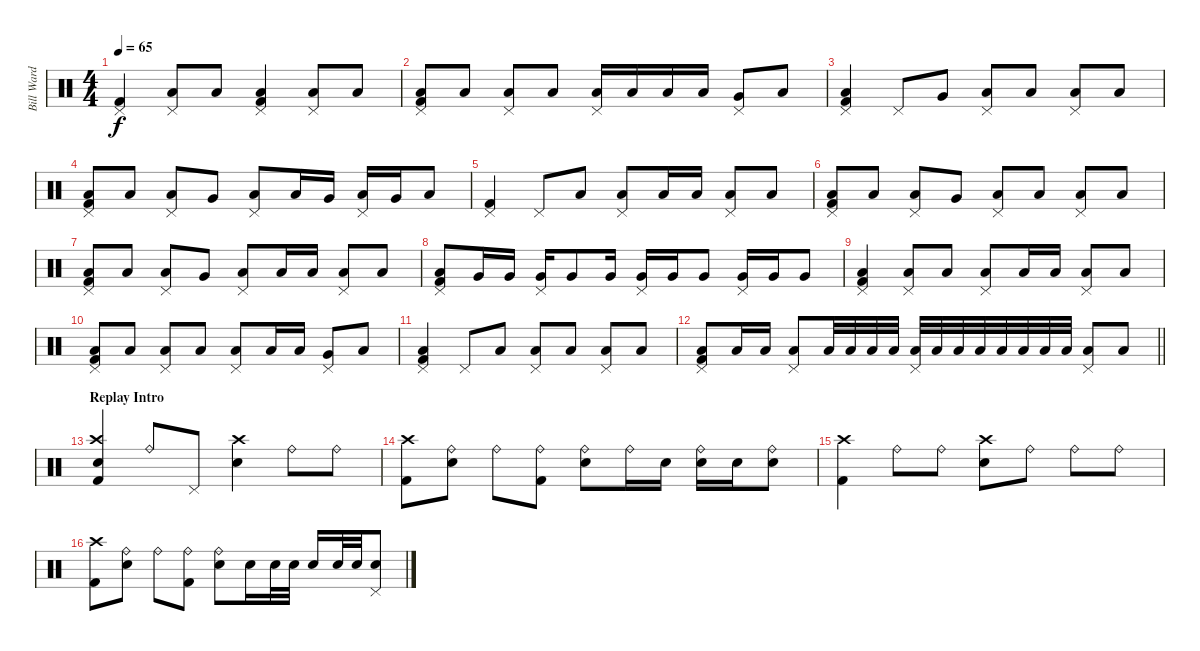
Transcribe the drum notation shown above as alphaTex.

\track ("Bill Ward" "Bill Ward") {instrument percussion}
\staff {score}
\articulation defaults
\ts (4 4)
\tempo 65
\clef neutral
\ks c
("Pedal Hi-Hat (hit)" "Kick (hit) 2").4{dy f} ("Pedal Hi-Hat (hit)" "Low Floor Tom (hit)").8 "Low Floor Tom (hit)".8 ("Pedal Hi-Hat (hit)" "Low Floor Tom (hit)" "Kick (hit) 2").4 ("Pedal Hi-Hat (hit)" "Low Floor Tom (hit)").8 "Low Floor Tom (hit)".8 |
("Pedal Hi-Hat (hit)" "Low Floor Tom (hit)" "Kick (hit) 2").8 "Low Floor Tom (hit)".8 ("Pedal Hi-Hat (hit)" "Low Floor Tom (hit)").8 "Low Floor Tom (hit)".8 ("Pedal Hi-Hat (hit)" "Low Floor Tom (hit)").16 "Low Floor Tom (hit)".16 "Low Floor Tom (hit)".16 "Low Floor Tom (hit)".16 ("Pedal Hi-Hat (hit)" "Very Low Tom (hit)").8 "Low Floor Tom (hit)".8 |
("Pedal Hi-Hat (hit)" "Low Floor Tom (hit)" "Kick (hit) 2").4 "Pedal Hi-Hat (hit)".8 "Very Low Tom (hit)".8 ("Pedal Hi-Hat (hit)" "Low Floor Tom (hit)").8 "Low Floor Tom (hit)".8 ("Pedal Hi-Hat (hit)" "Low Floor Tom (hit)").8 "Low Floor Tom (hit)".8 |
("Pedal Hi-Hat (hit)" "Low Floor Tom (hit)" "Kick (hit) 2").8 "Low Floor Tom (hit)".8 ("Pedal Hi-Hat (hit)" "Low Floor Tom (hit)").8 "Very Low Tom (hit)".8 ("Pedal Hi-Hat (hit)" "Low Floor Tom (hit)").8 "Low Floor Tom (hit)".16 "Very Low Tom (hit)".16 ("Pedal Hi-Hat (hit)" "Low Floor Tom (hit)").16 "Very Low Tom (hit)".16 "Low Floor Tom (hit)".8 |
("Pedal Hi-Hat (hit)" "Kick (hit) 2").4 "Pedal Hi-Hat (hit)".8 "Low Floor Tom (hit)".8 ("Pedal Hi-Hat (hit)" "Low Floor Tom (hit)").8 "Low Floor Tom (hit)".16 "Low Floor Tom (hit)".16 ("Pedal Hi-Hat (hit)" "Low Floor Tom (hit)").8 "Low Floor Tom (hit)".8 |
("Pedal Hi-Hat (hit)" "Low Floor Tom (hit)" "Kick (hit) 2").8 "Low Floor Tom (hit)".8 ("Pedal Hi-Hat (hit)" "Low Floor Tom (hit)").8 "Very Low Tom (hit)".8 ("Pedal Hi-Hat (hit)" "Low Floor Tom (hit)").8 "Low Floor Tom (hit)".8 ("Pedal Hi-Hat (hit)" "Low Floor Tom (hit)").8 "Low Floor Tom (hit)".8 |
("Pedal Hi-Hat (hit)" "Low Floor Tom (hit)" "Kick (hit) 2").8 "Low Floor Tom (hit)".8 ("Pedal Hi-Hat (hit)" "Low Floor Tom (hit)").8 "Very Low Tom (hit)".8 ("Pedal Hi-Hat (hit)" "Low Floor Tom (hit)").8 "Low Floor Tom (hit)".16 "Low Floor Tom (hit)".16 ("Pedal Hi-Hat (hit)" "Low Floor Tom (hit)").8 "Low Floor Tom (hit)".8 |
("Pedal Hi-Hat (hit)" "Low Floor Tom (hit)" "Kick (hit) 2").8 "Very Low Tom (hit)".16 "Very Low Tom (hit)".16 ("Pedal Hi-Hat (hit)" "Very Low Tom (hit)").16 "Very Low Tom (hit)".8 "Very Low Tom (hit)".16 ("Pedal Hi-Hat (hit)" "Very Low Tom (hit)").16 "Very Low Tom (hit)".16 "Very Low Tom (hit)".8 ("Pedal Hi-Hat (hit)" "Very Low Tom (hit)").16 "Very Low Tom (hit)".16 "Very Low Tom (hit)".8 |
("Pedal Hi-Hat (hit)" "Low Floor Tom (hit)" "Kick (hit) 2").4 ("Pedal Hi-Hat (hit)" "Low Floor Tom (hit)").8 "Low Floor Tom (hit)".8 ("Pedal Hi-Hat (hit)" "Low Floor Tom (hit)").8 "Low Floor Tom (hit)".16 "Low Floor Tom (hit)".16 ("Pedal Hi-Hat (hit)" "Low Floor Tom (hit)").8 "Low Floor Tom (hit)".8 |
("Pedal Hi-Hat (hit)" "Low Floor Tom (hit)" "Kick (hit) 2").8 "Low Floor Tom (hit)".8 ("Pedal Hi-Hat (hit)" "Low Floor Tom (hit)").8 "Low Floor Tom (hit)".8 ("Pedal Hi-Hat (hit)" "Low Floor Tom (hit)").8 "Low Floor Tom (hit)".16 "Low Floor Tom (hit)".16 ("Pedal Hi-Hat (hit)" "Very Low Tom (hit)").8 "Low Floor Tom (hit)".8 |
("Pedal Hi-Hat (hit)" "Low Floor Tom (hit)" "Kick (hit) 2").4 "Pedal Hi-Hat (hit)".8 "Low Floor Tom (hit)".8 ("Pedal Hi-Hat (hit)" "Low Floor Tom (hit)").8 "Low Floor Tom (hit)".8 ("Pedal Hi-Hat (hit)" "Low Floor Tom (hit)").8 "Low Floor Tom (hit)".8 |
\barLineRight lightlight
("Pedal Hi-Hat (hit)" "Low Floor Tom (hit)" "Kick (hit) 2").8 "Low Floor Tom (hit)".16 "Low Floor Tom (hit)".16 ("Pedal Hi-Hat (hit)" "Low Floor Tom (hit)").8 "Low Floor Tom (hit)".32 "Low Floor Tom (hit)".32 "Low Floor Tom (hit)".32 "Low Floor Tom (hit)".32 ("Pedal Hi-Hat (hit)" "Low Floor Tom (hit)").32 "Low Floor Tom (hit)".32 "Low Floor Tom (hit)".32 "Low Floor Tom (hit)".32 "Low Floor Tom (hit)".32 "Low Floor Tom (hit)".32 "Low Floor Tom (hit)".32 "Low Floor Tom (hit)".32 ("Pedal Hi-Hat (hit)" "Low Floor Tom (hit)").8 "Low Floor Tom (hit)".8 |
\section ("" "Replay Intro")
("Crash high (hit)" "Snare (hit) 2" "Kick (hit) 2").4{volume 11} "Ride (bell)".8 "Pedal Hi-Hat (hit)".8 ("Crash high (hit)" "Snare (hit) 2").4 "Ride (bell)".8 "Ride (bell)".8 |
("Crash high (hit)" "Kick (hit) 2").8 ("Ride (bell)" "Snare (hit) 2").8 "Ride (bell)".8 ("Ride (bell)" "Kick (hit) 2").8 ("Ride (bell)" "Snare (hit) 2").8 "Ride (bell)".16 "Snare (hit) 2".16 ("Ride (bell)" "Snare (hit) 2").16 "Snare (hit) 2".16 ("Ride (bell)" "Snare (hit) 2").8 |
("Crash high (hit)" "Kick (hit) 2").4 "Ride (bell)".8 "Ride (bell)".8 ("Crash high (hit)" "Snare (hit) 2").8 "Ride (bell)".8 "Ride (bell)".8 "Ride (bell)".8 |
("Crash high (hit)" "Kick (hit) 2").8 ("Ride (bell)" "Snare (hit) 2").8 "Ride (bell)".8 ("Ride (bell)" "Kick (hit) 2").8 ("Ride (bell)" "Snare (hit) 2").8 "Snare (hit) 2".16 "Snare (hit) 2".32 "Snare (hit) 2".32 "Snare (hit) 2".16 "Snare (hit) 2".32 "Snare (hit) 2".32 ("Pedal Hi-Hat (hit)" "Snare (hit) 2").8
